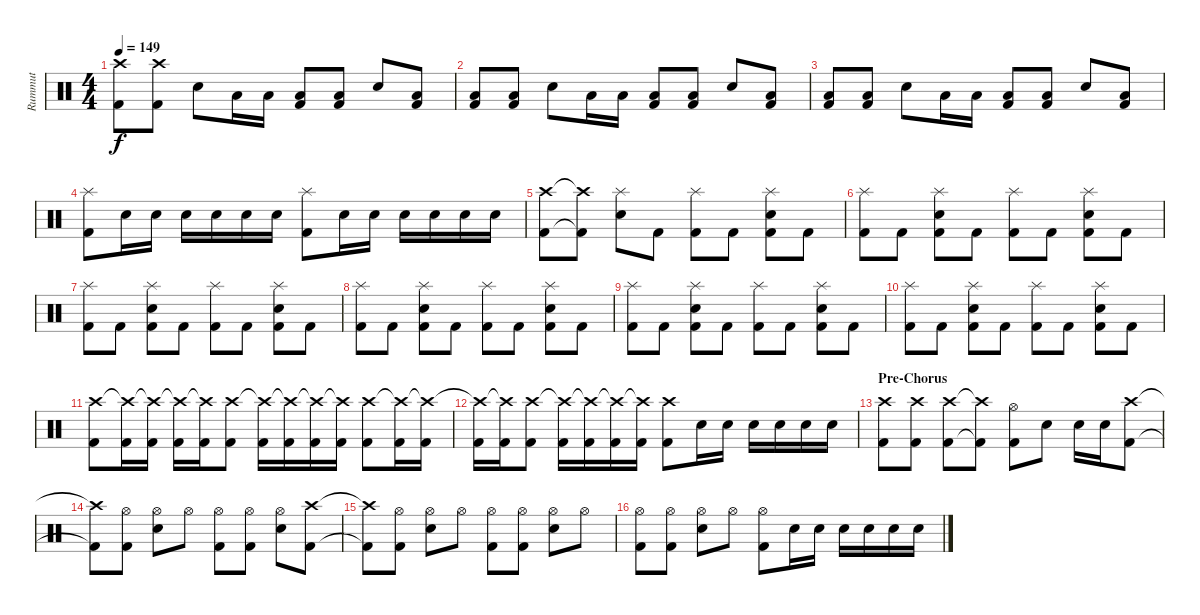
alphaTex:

\track ("Rummut" "Rummut") {instrument percussion}
\staff {score}
\articulation defaults
\ts (4 4)
\tempo 149
\clef neutral
\ks c
("Crash high (hit)" "Kick (hit) 2").8{dy f} ("Crash high (hit)" "Kick (hit) 2").8 "Electric Snare (hit)".8 "Low Tom (hit)".16 "Low Floor Tom (hit)".16 ("Low Tom (hit)" "Kick (hit) 2").8 ("Low Tom (hit)" "Kick (hit) 2").8 "Electric Snare (hit)".8 ("Low Tom (hit)" "Kick (hit) 2").8 |
("Low Tom (hit)" "Kick (hit) 2").8 ("Low Tom (hit)" "Kick (hit) 2").8 "Electric Snare (hit)".8 "Low Tom (hit)".16 "Low Floor Tom (hit)".16 ("Low Tom (hit)" "Kick (hit) 2").8 ("Low Tom (hit)" "Kick (hit) 2").8 "Electric Snare (hit)".8 ("Low Tom (hit)" "Kick (hit) 2").8 |
("Low Tom (hit)" "Kick (hit) 2").8 ("Low Tom (hit)" "Kick (hit) 2").8 "Electric Snare (hit)".8 "Low Tom (hit)".16 "Low Floor Tom (hit)".16 ("Low Tom (hit)" "Kick (hit) 2").8 ("Low Tom (hit)" "Kick (hit) 2").8 "Electric Snare (hit)".8 ("Low Tom (hit)" "Kick (hit) 2").8 |
("Splash (hit)" "Kick (hit) 2").8 "Electric Snare (hit)".16 "Electric Snare (hit)".16 "Electric Snare (hit)".16 "Electric Snare (hit)".16 "Electric Snare (hit)".16 "Electric Snare (hit)".16 ("Splash (hit)" "Kick (hit) 2").8 "Electric Snare (hit)".16 "Electric Snare (hit)".16 "Electric Snare (hit)".16 "Electric Snare (hit)".16 "Electric Snare (hit)".16 "Electric Snare (hit)".16 |
("Crash high (hit)" "Kick (hit) 2").8 ("Crash high (hit)"{t} "Kick (hit) 2"{t}).8 ("Splash (hit)" "Electric Snare (hit)").8 "Kick (hit) 2".8 ("Splash (hit)" "Kick (hit) 2").8 "Kick (hit) 2".8 ("Splash (hit)" "Electric Snare (hit)" "Kick (hit) 2").8 "Kick (hit) 2".8 |
("Splash (hit)" "Kick (hit) 2").8 "Kick (hit) 2".8 ("Splash (hit)" "Electric Snare (hit)" "Kick (hit) 2").8 "Kick (hit) 2".8 ("Splash (hit)" "Kick (hit) 2").8 "Kick (hit) 2".8 ("Splash (hit)" "Electric Snare (hit)" "Kick (hit) 2").8 "Kick (hit) 2".8 |
("Splash (hit)" "Kick (hit) 2").8 "Kick (hit) 2".8 ("Splash (hit)" "Electric Snare (hit)" "Kick (hit) 2").8 "Kick (hit) 2".8 ("Splash (hit)" "Kick (hit) 2").8 "Kick (hit) 2".8 ("Splash (hit)" "Electric Snare (hit)" "Kick (hit) 2").8 "Kick (hit) 2".8 |
("Splash (hit)" "Kick (hit) 2").8 "Kick (hit) 2".8 ("Splash (hit)" "Electric Snare (hit)" "Kick (hit) 2").8 "Kick (hit) 2".8 ("Splash (hit)" "Kick (hit) 2").8 "Kick (hit) 2".8 ("Splash (hit)" "Electric Snare (hit)" "Kick (hit) 2").8 "Kick (hit) 2".8 |
("Splash (hit)" "Kick (hit) 2").8 "Kick (hit) 2".8 ("Splash (hit)" "Electric Snare (hit)" "Kick (hit) 2").8 "Kick (hit) 2".8 ("Splash (hit)" "Kick (hit) 2").8 "Kick (hit) 2".8 ("Splash (hit)" "Electric Snare (hit)" "Kick (hit) 2").8 "Kick (hit) 2".8 |
("Splash (hit)" "Kick (hit) 2").8 "Kick (hit) 2".8 ("Splash (hit)" "Electric Snare (hit)" "Kick (hit) 2").8 "Kick (hit) 2".8 ("Splash (hit)" "Kick (hit) 2").8 "Kick (hit) 2".8 ("Splash (hit)" "Electric Snare (hit)" "Kick (hit) 2").8 "Kick (hit) 2".8 |
("Crash high (hit)" "Kick (hit) 2").8 ("Crash high (hit)"{t} "Kick (hit) 2").16 ("Crash high (hit)"{t} "Kick (hit) 2").16 ("Crash high (hit)"{t} "Kick (hit) 2").16 ("Crash high (hit)"{t} "Kick (hit) 2").16 ("Crash high (hit)" "Kick (hit) 2").8 ("Crash high (hit)"{t} "Kick (hit) 2").16 ("Crash high (hit)"{t} "Kick (hit) 2").16 ("Crash high (hit)"{t} "Kick (hit) 2").16 ("Crash high (hit)"{t} "Kick (hit) 2").16 ("Crash high (hit)" "Kick (hit) 2").8 ("Crash high (hit)"{t} "Kick (hit) 2").16 ("Crash high (hit)"{t} "Kick (hit) 2").16 |
("Crash high (hit)"{t} "Kick (hit) 2").16 ("Crash high (hit)"{t} "Kick (hit) 2").16 ("Crash high (hit)" "Kick (hit) 2").8 ("Crash high (hit)"{t} "Kick (hit) 2").16 ("Crash high (hit)"{t} "Kick (hit) 2").16 ("Crash high (hit)"{t} "Kick (hit) 2").16 ("Crash high (hit)"{t} "Kick (hit) 2").16 ("Crash high (hit)" "Kick (hit) 2").8 "Electric Snare (hit)".16 "Electric Snare (hit)".16 "Electric Snare (hit)".16 "Electric Snare (hit)".16 "Electric Snare (hit)".16 "Electric Snare (hit)".16 |
\section ("" "Pre-Chorus")
("Crash high (hit)" "Kick (hit) 2").8 ("Crash high (hit)" "Kick (hit) 2").8 ("Crash high (hit)" "Kick (hit) 2").8 ("Crash high (hit)"{t} "Kick (hit) 2"{t}).8 ("Hi-Hat (open)" "Kick (hit) 2").8 "Electric Snare (hit)".8 "Electric Snare (hit)".16 "Electric Snare (hit)".16 ("Crash high (hit)" "Kick (hit) 2").8 |
("Crash high (hit)"{t} "Kick (hit) 2"{t}).8 ("Hi-Hat (open)" "Kick (hit) 2").8 ("Hi-Hat (open)" "Electric Snare (hit)").8 "Hi-Hat (open)".8 ("Hi-Hat (open)" "Kick (hit) 2").8 ("Hi-Hat (open)" "Kick (hit) 2").8 ("Hi-Hat (open)" "Electric Snare (hit)").8 ("Crash high (hit)" "Kick (hit) 2").8 |
("Crash high (hit)"{t} "Kick (hit) 2"{t}).8 ("Hi-Hat (open)" "Kick (hit) 2").8 ("Hi-Hat (open)" "Electric Snare (hit)").8 "Hi-Hat (open)".8 ("Hi-Hat (open)" "Kick (hit) 2").8 ("Hi-Hat (open)" "Kick (hit) 2").8 ("Hi-Hat (open)" "Electric Snare (hit)").8 "Hi-Hat (open)".8 |
("Hi-Hat (open)" "Kick (hit) 2").8 ("Hi-Hat (open)" "Kick (hit) 2").8 ("Hi-Hat (open)" "Electric Snare (hit)").8 "Hi-Hat (open)".8 ("Hi-Hat (open)" "Kick (hit) 2").8 "Electric Snare (hit)".16 "Electric Snare (hit)".16 "Electric Snare (hit)".16 "Electric Snare (hit)".16 "Electric Snare (hit)".16 "Electric Snare (hit)".16
